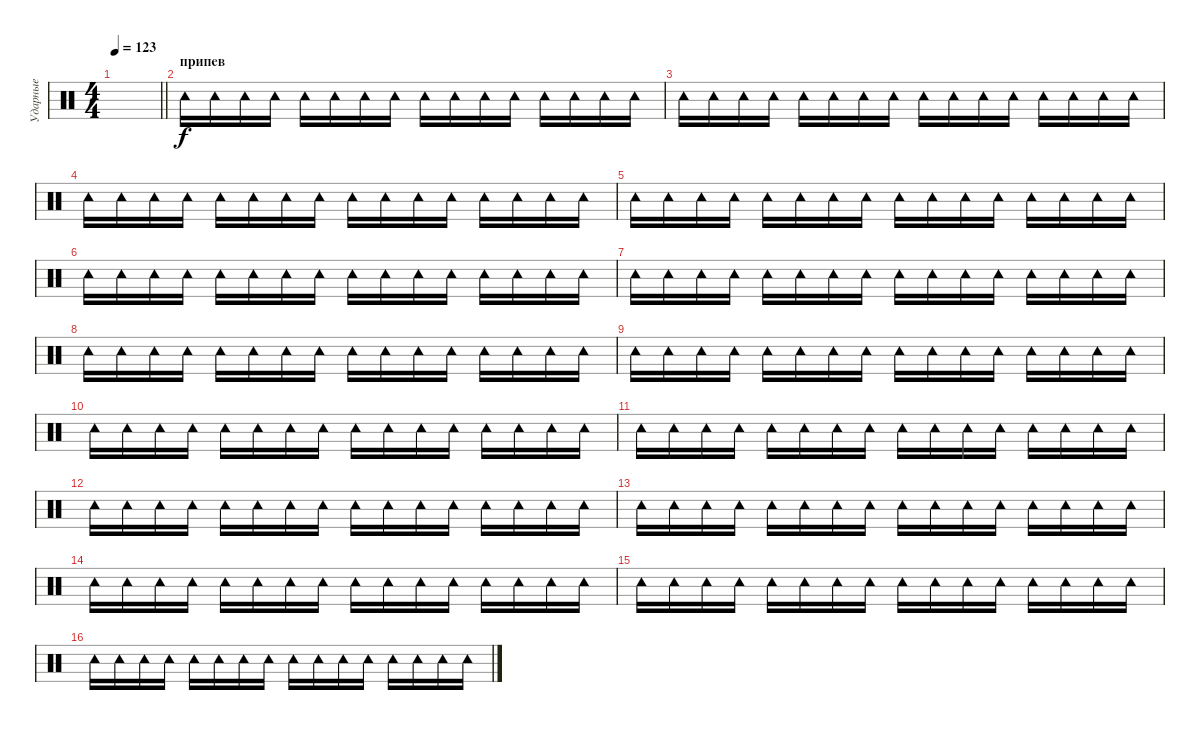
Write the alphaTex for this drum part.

\track ("Ударные" "Ударные") {instrument percussion}
\staff {score}
\articulation defaults
\ts (4 4)
\tempo 123
\clef neutral
\barLineRight lightlight
\ks c
|
\section ("" "припев")
"Tambourine (hit)".16 "Tambourine (hit)".16 "Tambourine (hit)".16 "Tambourine (hit)".16 "Tambourine (hit)".16 "Tambourine (hit)".16 "Tambourine (hit)".16 "Tambourine (hit)".16 "Tambourine (hit)".16 "Tambourine (hit)".16 "Tambourine (hit)".16 "Tambourine (hit)".16 "Tambourine (hit)".16 "Tambourine (hit)".16 "Tambourine (hit)".16 "Tambourine (hit)".16 |
"Tambourine (hit)".16 "Tambourine (hit)".16 "Tambourine (hit)".16 "Tambourine (hit)".16 "Tambourine (hit)".16 "Tambourine (hit)".16 "Tambourine (hit)".16 "Tambourine (hit)".16 "Tambourine (hit)".16 "Tambourine (hit)".16 "Tambourine (hit)".16 "Tambourine (hit)".16 "Tambourine (hit)".16 "Tambourine (hit)".16 "Tambourine (hit)".16 "Tambourine (hit)".16 |
"Tambourine (hit)".16 "Tambourine (hit)".16 "Tambourine (hit)".16 "Tambourine (hit)".16 "Tambourine (hit)".16 "Tambourine (hit)".16 "Tambourine (hit)".16 "Tambourine (hit)".16 "Tambourine (hit)".16 "Tambourine (hit)".16 "Tambourine (hit)".16 "Tambourine (hit)".16 "Tambourine (hit)".16 "Tambourine (hit)".16 "Tambourine (hit)".16 "Tambourine (hit)".16 |
"Tambourine (hit)".16 "Tambourine (hit)".16 "Tambourine (hit)".16 "Tambourine (hit)".16 "Tambourine (hit)".16 "Tambourine (hit)".16 "Tambourine (hit)".16 "Tambourine (hit)".16 "Tambourine (hit)".16 "Tambourine (hit)".16 "Tambourine (hit)".16 "Tambourine (hit)".16 "Tambourine (hit)".16 "Tambourine (hit)".16 "Tambourine (hit)".16 "Tambourine (hit)".16 |
"Tambourine (hit)".16 "Tambourine (hit)".16 "Tambourine (hit)".16 "Tambourine (hit)".16 "Tambourine (hit)".16 "Tambourine (hit)".16 "Tambourine (hit)".16 "Tambourine (hit)".16 "Tambourine (hit)".16 "Tambourine (hit)".16 "Tambourine (hit)".16 "Tambourine (hit)".16 "Tambourine (hit)".16 "Tambourine (hit)".16 "Tambourine (hit)".16 "Tambourine (hit)".16 |
"Tambourine (hit)".16 "Tambourine (hit)".16 "Tambourine (hit)".16 "Tambourine (hit)".16 "Tambourine (hit)".16 "Tambourine (hit)".16 "Tambourine (hit)".16 "Tambourine (hit)".16 "Tambourine (hit)".16 "Tambourine (hit)".16 "Tambourine (hit)".16 "Tambourine (hit)".16 "Tambourine (hit)".16 "Tambourine (hit)".16 "Tambourine (hit)".16 "Tambourine (hit)".16 |
"Tambourine (hit)".16 "Tambourine (hit)".16 "Tambourine (hit)".16 "Tambourine (hit)".16 "Tambourine (hit)".16 "Tambourine (hit)".16 "Tambourine (hit)".16 "Tambourine (hit)".16 "Tambourine (hit)".16 "Tambourine (hit)".16 "Tambourine (hit)".16 "Tambourine (hit)".16 "Tambourine (hit)".16 "Tambourine (hit)".16 "Tambourine (hit)".16 "Tambourine (hit)".16 |
"Tambourine (hit)".16 "Tambourine (hit)".16 "Tambourine (hit)".16 "Tambourine (hit)".16 "Tambourine (hit)".16 "Tambourine (hit)".16 "Tambourine (hit)".16 "Tambourine (hit)".16 "Tambourine (hit)".16 "Tambourine (hit)".16 "Tambourine (hit)".16 "Tambourine (hit)".16 "Tambourine (hit)".16 "Tambourine (hit)".16 "Tambourine (hit)".16 "Tambourine (hit)".16 |
"Tambourine (hit)".16 "Tambourine (hit)".16 "Tambourine (hit)".16 "Tambourine (hit)".16 "Tambourine (hit)".16 "Tambourine (hit)".16 "Tambourine (hit)".16 "Tambourine (hit)".16 "Tambourine (hit)".16 "Tambourine (hit)".16 "Tambourine (hit)".16 "Tambourine (hit)".16 "Tambourine (hit)".16 "Tambourine (hit)".16 "Tambourine (hit)".16 "Tambourine (hit)".16 |
"Tambourine (hit)".16 "Tambourine (hit)".16 "Tambourine (hit)".16 "Tambourine (hit)".16 "Tambourine (hit)".16 "Tambourine (hit)".16 "Tambourine (hit)".16 "Tambourine (hit)".16 "Tambourine (hit)".16 "Tambourine (hit)".16 "Tambourine (hit)".16 "Tambourine (hit)".16 "Tambourine (hit)".16 "Tambourine (hit)".16 "Tambourine (hit)".16 "Tambourine (hit)".16 |
"Tambourine (hit)".16 "Tambourine (hit)".16 "Tambourine (hit)".16 "Tambourine (hit)".16 "Tambourine (hit)".16 "Tambourine (hit)".16 "Tambourine (hit)".16 "Tambourine (hit)".16 "Tambourine (hit)".16 "Tambourine (hit)".16 "Tambourine (hit)".16 "Tambourine (hit)".16 "Tambourine (hit)".16 "Tambourine (hit)".16 "Tambourine (hit)".16 "Tambourine (hit)".16 |
"Tambourine (hit)".16 "Tambourine (hit)".16 "Tambourine (hit)".16 "Tambourine (hit)".16 "Tambourine (hit)".16 "Tambourine (hit)".16 "Tambourine (hit)".16 "Tambourine (hit)".16 "Tambourine (hit)".16 "Tambourine (hit)".16 "Tambourine (hit)".16 "Tambourine (hit)".16 "Tambourine (hit)".16 "Tambourine (hit)".16 "Tambourine (hit)".16 "Tambourine (hit)".16 |
"Tambourine (hit)".16 "Tambourine (hit)".16 "Tambourine (hit)".16 "Tambourine (hit)".16 "Tambourine (hit)".16 "Tambourine (hit)".16 "Tambourine (hit)".16 "Tambourine (hit)".16 "Tambourine (hit)".16 "Tambourine (hit)".16 "Tambourine (hit)".16 "Tambourine (hit)".16 "Tambourine (hit)".16 "Tambourine (hit)".16 "Tambourine (hit)".16 "Tambourine (hit)".16 |
"Tambourine (hit)".16 "Tambourine (hit)".16 "Tambourine (hit)".16 "Tambourine (hit)".16 "Tambourine (hit)".16 "Tambourine (hit)".16 "Tambourine (hit)".16 "Tambourine (hit)".16 "Tambourine (hit)".16 "Tambourine (hit)".16 "Tambourine (hit)".16 "Tambourine (hit)".16 "Tambourine (hit)".16 "Tambourine (hit)".16 "Tambourine (hit)".16 "Tambourine (hit)".16 |
"Tambourine (hit)".16 "Tambourine (hit)".16 "Tambourine (hit)".16 "Tambourine (hit)".16 "Tambourine (hit)".16 "Tambourine (hit)".16 "Tambourine (hit)".16 "Tambourine (hit)".16 "Tambourine (hit)".16 "Tambourine (hit)".16 "Tambourine (hit)".16 "Tambourine (hit)".16 "Tambourine (hit)".16 "Tambourine (hit)".16 "Tambourine (hit)".16 "Tambourine (hit)".16
